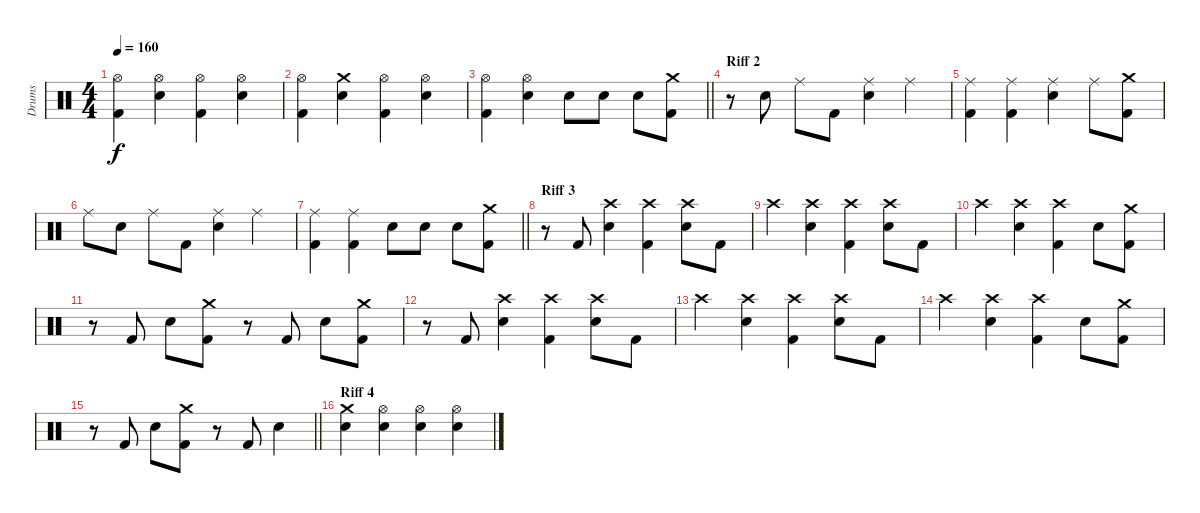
\track ("Drums" "Drums") {instrument percussion}
\staff {score}
\articulation defaults
\ts (4 4)
\tempo 160
\clef neutral
\ks c
("Kick (hit) 2" "Hi-Hat (open)").4{dy f} ("Electric Snare (hit)" "Hi-Hat (open)").4 ("Kick (hit) 2" "Hi-Hat (open)").4 ("Electric Snare (hit)" "Hi-Hat (open)").4 |
("Kick (hit) 2" "Hi-Hat (open)").4 ("Electric Snare (hit)" "Crash medium (hit)").4 ("Kick (hit) 2" "Hi-Hat (open)").4 ("Electric Snare (hit)" "Hi-Hat (open)").4 |
\barLineRight lightlight
("Kick (hit) 2" "Hi-Hat (open)").4 ("Electric Snare (hit)" "Hi-Hat (open)").4 "Electric Snare (hit)".8 "Electric Snare (hit)".8 "Electric Snare (hit)".8 ("Kick (hit) 2" "Crash medium (hit)").8 |
\section ("" "Riff 2")
r.8 "Electric Snare (hit)".8 "Ride (middle)".8 "Kick (hit) 2".8 ("Ride (middle)" "Electric Snare (hit)").4 "Ride (middle)".4 |
("Ride (middle)" "Kick (hit) 2").4 ("Ride (middle)" "Kick (hit) 2").4 ("Ride (middle)" "Electric Snare (hit)").4 "Ride (middle)".8 ("Kick (hit) 2" "Crash medium (hit)").8 |
"Ride (middle)".8 "Electric Snare (hit)".8 "Ride (middle)".8 "Kick (hit) 2".8 ("Ride (middle)" "Electric Snare (hit)").4 "Ride (middle)".4 |
\barLineRight lightlight
("Ride (middle)" "Kick (hit) 2").4 ("Ride (middle)" "Kick (hit) 2").4 "Electric Snare (hit)".8 "Electric Snare (hit)".8 "Electric Snare (hit)".8 ("Kick (hit) 2" "Crash medium (hit)").8 |
\section ("" "Riff 3")
r.8 "Kick (hit) 2".8 ("Crash high (hit)" "Electric Snare (hit)").4 ("Crash high (hit)" "Kick (hit) 2").4 ("Crash high (hit)" "Electric Snare (hit)").8 "Kick (hit) 2".8 |
"Crash high (hit)".4 ("Crash high (hit)" "Electric Snare (hit)").4 ("Crash high (hit)" "Kick (hit) 2").4 ("Crash high (hit)" "Electric Snare (hit)").8 "Kick (hit) 2".8 |
"Crash high (hit)".4 ("Crash high (hit)" "Electric Snare (hit)").4 ("Crash high (hit)" "Kick (hit) 2").4 "Electric Snare (hit)".8 ("Kick (hit) 2" "Crash medium (hit)").8 |
r.8 "Kick (hit) 2".8 "Electric Snare (hit)".8 ("Kick (hit) 2" "Crash medium (hit)").8 r.8 "Kick (hit) 2".8 "Electric Snare (hit)".8 ("Kick (hit) 2" "Crash medium (hit)").8 |
r.8 "Kick (hit) 2".8 ("Crash high (hit)" "Electric Snare (hit)").4 ("Crash high (hit)" "Kick (hit) 2").4 ("Crash high (hit)" "Electric Snare (hit)").8 "Kick (hit) 2".8 |
"Crash high (hit)".4 ("Crash high (hit)" "Electric Snare (hit)").4 ("Crash high (hit)" "Kick (hit) 2").4 ("Crash high (hit)" "Electric Snare (hit)").8 "Kick (hit) 2".8 |
"Crash high (hit)".4 ("Crash high (hit)" "Electric Snare (hit)").4 ("Crash high (hit)" "Kick (hit) 2").4 "Electric Snare (hit)".8 ("Kick (hit) 2" "Crash medium (hit)").8 |
\barLineRight lightlight
r.8 "Kick (hit) 2".8 "Electric Snare (hit)".8 ("Kick (hit) 2" "Crash medium (hit)").8 r.8 "Kick (hit) 2".8 "Electric Snare (hit)".4 |
\section ("" "Riff 4")
("Crash medium (hit)" "Electric Snare (hit)").4 ("Hi-Hat (open)" "Electric Snare (hit)").4 ("Electric Snare (hit)" "Hi-Hat (open)").4 ("Hi-Hat (open)" "Electric Snare (hit)").4
